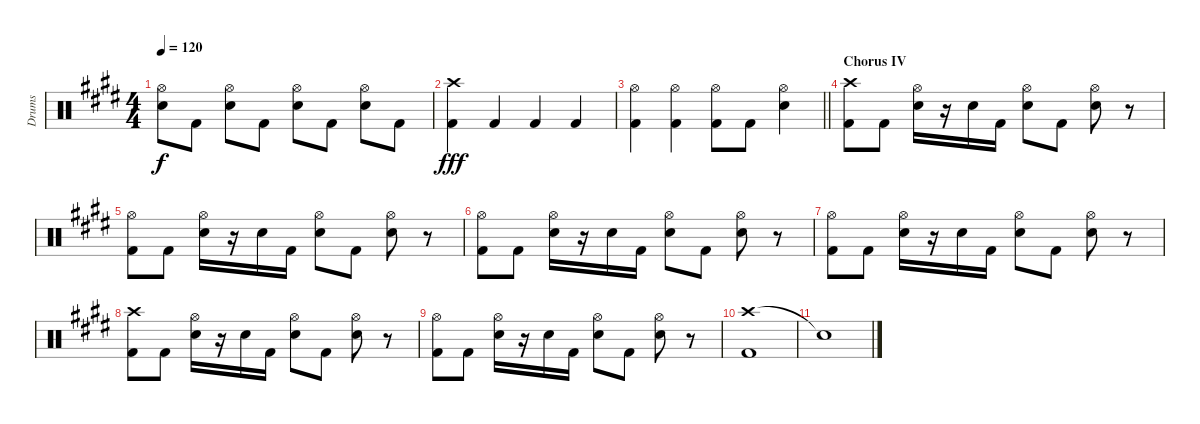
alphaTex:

\track ("Drums" "Drums") {instrument percussion}
\staff {score}
\articulation defaults
\ts (4 4)
\tempo 120
\clef neutral
\ks e
("Hi-Hat (open)" "Snare (hit) 2").8{dy f} "Kick (hit) 2".8 ("Hi-Hat (open)" "Snare (hit) 2").8 "Kick (hit) 2".8 ("Hi-Hat (open)" "Snare (hit) 2").8 "Kick (hit) 2".8 ("Hi-Hat (open)" "Snare (hit) 2").8 "Kick (hit) 2".8 |
("Crash high (hit)" "Kick (hit) 2").4{dy fff} "Kick (hit) 2".4 "Kick (hit) 2".4 "Kick (hit) 2".4 |
\barLineRight lightlight
("Hi-Hat (open)" "Kick (hit) 2").4 ("Hi-Hat (open)" "Kick (hit) 2").4 ("Hi-Hat (open)" "Kick (hit) 2").8 "Kick (hit) 2".8 ("Hi-Hat (open)" "Snare (hit) 2").4 |
\section ("" "Chorus IV")
("Crash high (hit)" "Kick (hit) 2").8 "Kick (hit) 2".8 ("Hi-Hat (open)" "Snare (hit) 2").16 r.16 "Snare (hit) 2".16 "Kick (hit) 2".16 ("Hi-Hat (open)" "Snare (hit) 2").8 "Kick (hit) 2".8 ("Hi-Hat (open)" "Snare (hit) 2").8 r.8 |
("Hi-Hat (open)" "Kick (hit) 2").8 "Kick (hit) 2".8 ("Hi-Hat (open)" "Snare (hit) 2").16 r.16 "Snare (hit) 2".16 "Kick (hit) 2".16 ("Hi-Hat (open)" "Snare (hit) 2").8 "Kick (hit) 2".8 ("Hi-Hat (open)" "Snare (hit) 2").8 r.8 |
("Hi-Hat (open)" "Kick (hit) 2").8 "Kick (hit) 2".8 ("Hi-Hat (open)" "Snare (hit) 2").16 r.16 "Snare (hit) 2".16 "Kick (hit) 2".16 ("Hi-Hat (open)" "Snare (hit) 2").8 "Kick (hit) 2".8 ("Hi-Hat (open)" "Snare (hit) 2").8 r.8 |
("Hi-Hat (open)" "Kick (hit) 2").8 "Kick (hit) 2".8 ("Hi-Hat (open)" "Snare (hit) 2").16 r.16 "Snare (hit) 2".16 "Kick (hit) 2".16 ("Hi-Hat (open)" "Snare (hit) 2").8 "Kick (hit) 2".8 ("Hi-Hat (open)" "Snare (hit) 2").8 r.8 |
("Crash high (hit)" "Kick (hit) 2").8 "Kick (hit) 2".8 ("Hi-Hat (open)" "Snare (hit) 2").16 r.16 "Snare (hit) 2".16 "Kick (hit) 2".16 ("Hi-Hat (open)" "Snare (hit) 2").8 "Kick (hit) 2".8 ("Hi-Hat (open)" "Snare (hit) 2").8 r.8 |
("Hi-Hat (open)" "Kick (hit) 2").8 "Kick (hit) 2".8 ("Hi-Hat (open)" "Snare (hit) 2").16 r.16 "Snare (hit) 2".16 "Kick (hit) 2".16 ("Hi-Hat (open)" "Snare (hit) 2").8 "Kick (hit) 2".8 ("Hi-Hat (open)" "Snare (hit) 2").8 r.8 |
("Crash high (hit)" "Kick (hit) 2").1 |
"Snare (hit)"{t}.1
